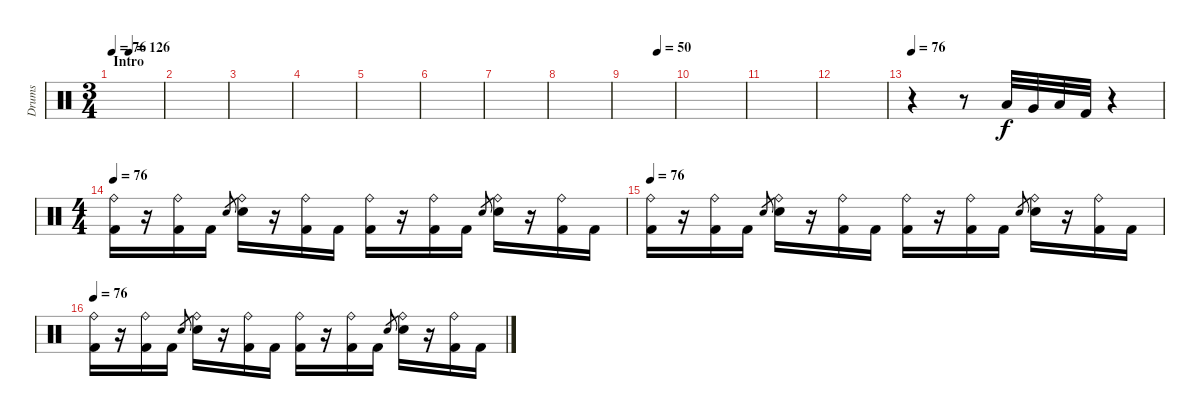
\track ("Drums" "Drums") {instrument percussion}
\staff {score}
\articulation defaults
\ts (3 4)
\section ("" "Intro")
\tempo 76
\tempo (126 0.3333333333333333)
\tempo 76
\clef neutral
\ks c
|
|
|
|
|
|
|
|
\tempo (50 0.6666666666666666)
|
|
|
|
\tempo 76
r.4 r.8 "Low Tom (hit)".32 "Very Low Tom (hit)".32 "Low Floor Tom (hit)".32 "Kick (hit) 2".32 r.4 |
\ts (4 4)
\tempo 76
("Ride (bell)" "Kick (hit) 2").16 r.16 ("Ride (bell)" "Kick (hit) 2").16 "Kick (hit) 2".16 "Electric Snare (hit)".8{gr} ("Ride (bell)" "Electric Snare (hit)").16 r.16 ("Ride (bell)" "Kick (hit) 2").16 "Kick (hit) 2".16 ("Ride (bell)" "Kick (hit) 2").16 r.16 ("Ride (bell)" "Kick (hit) 2").16 "Kick (hit) 2".16 "Electric Snare (hit)".8{gr} ("Ride (bell)" "Electric Snare (hit)").16 r.16 ("Ride (bell)" "Kick (hit) 2").16 "Kick (hit) 2".16 |
\tempo 76
("Ride (bell)" "Kick (hit) 2").16 r.16 ("Ride (bell)" "Kick (hit) 2").16 "Kick (hit) 2".16 "Electric Snare (hit)".8{gr} ("Ride (bell)" "Electric Snare (hit)").16 r.16 ("Ride (bell)" "Kick (hit) 2").16 "Kick (hit) 2".16 ("Ride (bell)" "Kick (hit) 2").16 r.16 ("Ride (bell)" "Kick (hit) 2").16 "Kick (hit) 2".16 "Electric Snare (hit)".8{gr} ("Ride (bell)" "Electric Snare (hit)").16 r.16 ("Ride (bell)" "Kick (hit) 2").16 "Kick (hit) 2".16 |
\tempo 76
("Ride (bell)" "Kick (hit) 2").16 r.16 ("Ride (bell)" "Kick (hit) 2").16 "Kick (hit) 2".16 "Electric Snare (hit)".8{gr} ("Ride (bell)" "Electric Snare (hit)").16 r.16 ("Ride (bell)" "Kick (hit) 2").16 "Kick (hit) 2".16 ("Ride (bell)" "Kick (hit) 2").16 r.16 ("Ride (bell)" "Kick (hit) 2").16 "Kick (hit) 2".16 "Electric Snare (hit)".8{gr} ("Ride (bell)" "Electric Snare (hit)").16 r.16 ("Ride (bell)" "Kick (hit) 2").16 "Kick (hit) 2".16
